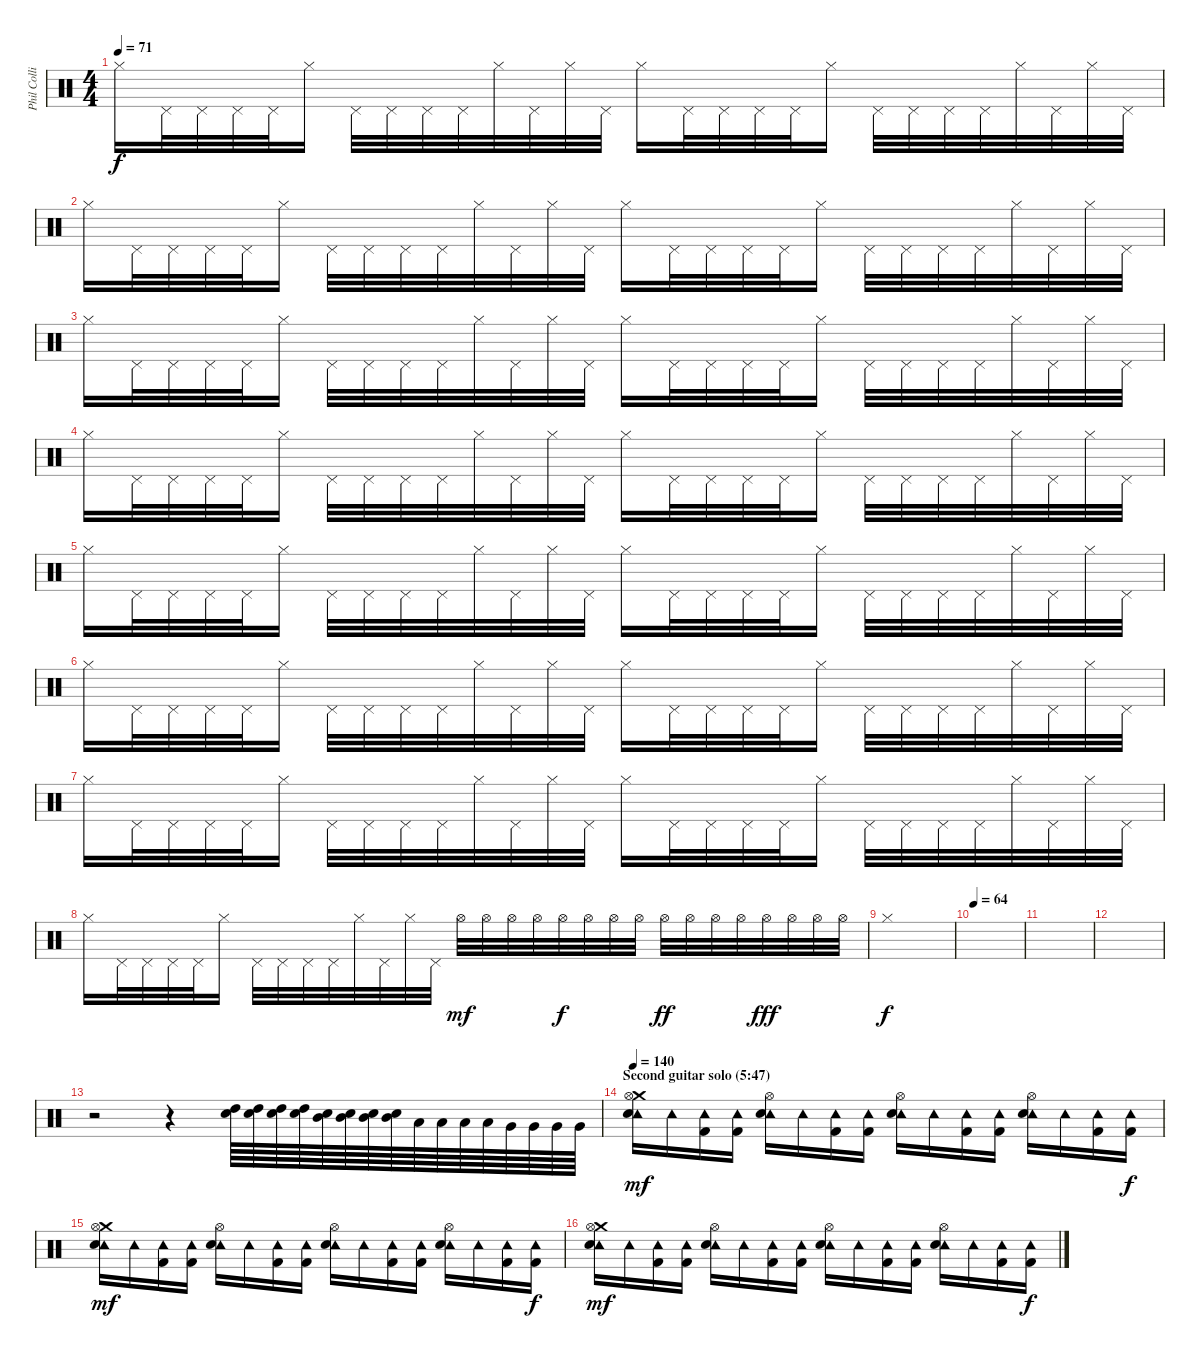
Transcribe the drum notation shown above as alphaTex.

\track ("Phil Collins (drums)" "Phil Colli") {instrument percussion}
\staff {score}
\articulation defaults
\ts (4 4)
\tempo 71
\clef neutral
\ks c "Hi-Hat (closed)".16{dy f} "Pedal Hi-Hat (hit)".32 "Pedal Hi-Hat (hit)".32 "Pedal Hi-Hat (hit)".32 "Pedal Hi-Hat (hit)".32 "Hi-Hat (closed)".16 "Pedal Hi-Hat (hit)".32 "Pedal Hi-Hat (hit)".32 "Pedal Hi-Hat (hit)".32 "Pedal Hi-Hat (hit)".32 "Hi-Hat (closed)".32 "Pedal Hi-Hat (hit)".32 "Hi-Hat (closed)".32 "Pedal Hi-Hat (hit)".32 "Hi-Hat (closed)".16 "Pedal Hi-Hat (hit)".32 "Pedal Hi-Hat (hit)".32 "Pedal Hi-Hat (hit)".32 "Pedal Hi-Hat (hit)".32 "Hi-Hat (closed)".16 "Pedal Hi-Hat (hit)".32 "Pedal Hi-Hat (hit)".32 "Pedal Hi-Hat (hit)".32 "Pedal Hi-Hat (hit)".32 "Hi-Hat (closed)".32 "Pedal Hi-Hat (hit)".32 "Hi-Hat (closed)".32 "Pedal Hi-Hat (hit)".32
|
"Hi-Hat (closed)".16 "Pedal Hi-Hat (hit)".32 "Pedal Hi-Hat (hit)".32 "Pedal Hi-Hat (hit)".32 "Pedal Hi-Hat (hit)".32 "Hi-Hat (closed)".16 "Pedal Hi-Hat (hit)".32 "Pedal Hi-Hat (hit)".32 "Pedal Hi-Hat (hit)".32 "Pedal Hi-Hat (hit)".32 "Hi-Hat (closed)".32 "Pedal Hi-Hat (hit)".32 "Hi-Hat (closed)".32 "Pedal Hi-Hat (hit)".32 "Hi-Hat (closed)".16 "Pedal Hi-Hat (hit)".32 "Pedal Hi-Hat (hit)".32 "Pedal Hi-Hat (hit)".32 "Pedal Hi-Hat (hit)".32 "Hi-Hat (closed)".16 "Pedal Hi-Hat (hit)".32 "Pedal Hi-Hat (hit)".32 "Pedal Hi-Hat (hit)".32 "Pedal Hi-Hat (hit)".32 "Hi-Hat (closed)".32 "Pedal Hi-Hat (hit)".32 "Hi-Hat (closed)".32 "Pedal Hi-Hat (hit)".32 |
"Hi-Hat (closed)".16 "Pedal Hi-Hat (hit)".32 "Pedal Hi-Hat (hit)".32 "Pedal Hi-Hat (hit)".32 "Pedal Hi-Hat (hit)".32 "Hi-Hat (closed)".16 "Pedal Hi-Hat (hit)".32 "Pedal Hi-Hat (hit)".32 "Pedal Hi-Hat (hit)".32 "Pedal Hi-Hat (hit)".32 "Hi-Hat (closed)".32 "Pedal Hi-Hat (hit)".32 "Hi-Hat (closed)".32 "Pedal Hi-Hat (hit)".32 "Hi-Hat (closed)".16 "Pedal Hi-Hat (hit)".32 "Pedal Hi-Hat (hit)".32 "Pedal Hi-Hat (hit)".32 "Pedal Hi-Hat (hit)".32 "Hi-Hat (closed)".16 "Pedal Hi-Hat (hit)".32 "Pedal Hi-Hat (hit)".32 "Pedal Hi-Hat (hit)".32 "Pedal Hi-Hat (hit)".32 "Hi-Hat (closed)".32 "Pedal Hi-Hat (hit)".32 "Hi-Hat (closed)".32 "Pedal Hi-Hat (hit)".32 |
"Hi-Hat (closed)".16 "Pedal Hi-Hat (hit)".32 "Pedal Hi-Hat (hit)".32 "Pedal Hi-Hat (hit)".32 "Pedal Hi-Hat (hit)".32 "Hi-Hat (closed)".16 "Pedal Hi-Hat (hit)".32 "Pedal Hi-Hat (hit)".32 "Pedal Hi-Hat (hit)".32 "Pedal Hi-Hat (hit)".32 "Hi-Hat (closed)".32 "Pedal Hi-Hat (hit)".32 "Hi-Hat (closed)".32 "Pedal Hi-Hat (hit)".32 "Hi-Hat (closed)".16 "Pedal Hi-Hat (hit)".32 "Pedal Hi-Hat (hit)".32 "Pedal Hi-Hat (hit)".32 "Pedal Hi-Hat (hit)".32 "Hi-Hat (closed)".16 "Pedal Hi-Hat (hit)".32 "Pedal Hi-Hat (hit)".32 "Pedal Hi-Hat (hit)".32 "Pedal Hi-Hat (hit)".32 "Hi-Hat (closed)".32 "Pedal Hi-Hat (hit)".32 "Hi-Hat (closed)".32 "Pedal Hi-Hat (hit)".32 |
"Hi-Hat (closed)".16 "Pedal Hi-Hat (hit)".32 "Pedal Hi-Hat (hit)".32 "Pedal Hi-Hat (hit)".32 "Pedal Hi-Hat (hit)".32 "Hi-Hat (closed)".16 "Pedal Hi-Hat (hit)".32 "Pedal Hi-Hat (hit)".32 "Pedal Hi-Hat (hit)".32 "Pedal Hi-Hat (hit)".32 "Hi-Hat (closed)".32 "Pedal Hi-Hat (hit)".32 "Hi-Hat (closed)".32 "Pedal Hi-Hat (hit)".32 "Hi-Hat (closed)".16 "Pedal Hi-Hat (hit)".32 "Pedal Hi-Hat (hit)".32 "Pedal Hi-Hat (hit)".32 "Pedal Hi-Hat (hit)".32 "Hi-Hat (closed)".16 "Pedal Hi-Hat (hit)".32 "Pedal Hi-Hat (hit)".32 "Pedal Hi-Hat (hit)".32 "Pedal Hi-Hat (hit)".32 "Hi-Hat (closed)".32 "Pedal Hi-Hat (hit)".32 "Hi-Hat (closed)".32 "Pedal Hi-Hat (hit)".32 |
"Hi-Hat (closed)".16 "Pedal Hi-Hat (hit)".32 "Pedal Hi-Hat (hit)".32 "Pedal Hi-Hat (hit)".32 "Pedal Hi-Hat (hit)".32 "Hi-Hat (closed)".16 "Pedal Hi-Hat (hit)".32 "Pedal Hi-Hat (hit)".32 "Pedal Hi-Hat (hit)".32 "Pedal Hi-Hat (hit)".32 "Hi-Hat (closed)".32 "Pedal Hi-Hat (hit)".32 "Hi-Hat (closed)".32 "Pedal Hi-Hat (hit)".32 "Hi-Hat (closed)".16 "Pedal Hi-Hat (hit)".32 "Pedal Hi-Hat (hit)".32 "Pedal Hi-Hat (hit)".32 "Pedal Hi-Hat (hit)".32 "Hi-Hat (closed)".16 "Pedal Hi-Hat (hit)".32 "Pedal Hi-Hat (hit)".32 "Pedal Hi-Hat (hit)".32 "Pedal Hi-Hat (hit)".32 "Hi-Hat (closed)".32 "Pedal Hi-Hat (hit)".32 "Hi-Hat (closed)".32 "Pedal Hi-Hat (hit)".32 |
"Hi-Hat (closed)".16 "Pedal Hi-Hat (hit)".32 "Pedal Hi-Hat (hit)".32 "Pedal Hi-Hat (hit)".32 "Pedal Hi-Hat (hit)".32 "Hi-Hat (closed)".16 "Pedal Hi-Hat (hit)".32 "Pedal Hi-Hat (hit)".32 "Pedal Hi-Hat (hit)".32 "Pedal Hi-Hat (hit)".32 "Hi-Hat (closed)".32 "Pedal Hi-Hat (hit)".32 "Hi-Hat (closed)".32 "Pedal Hi-Hat (hit)".32 "Hi-Hat (closed)".16 "Pedal Hi-Hat (hit)".32 "Pedal Hi-Hat (hit)".32 "Pedal Hi-Hat (hit)".32 "Pedal Hi-Hat (hit)".32 "Hi-Hat (closed)".16 "Pedal Hi-Hat (hit)".32 "Pedal Hi-Hat (hit)".32 "Pedal Hi-Hat (hit)".32 "Pedal Hi-Hat (hit)".32 "Hi-Hat (closed)".32 "Pedal Hi-Hat (hit)".32 "Hi-Hat (closed)".32 "Pedal Hi-Hat (hit)".32 |
"Hi-Hat (closed)".16 "Pedal Hi-Hat (hit)".32 "Pedal Hi-Hat (hit)".32 "Pedal Hi-Hat (hit)".32 "Pedal Hi-Hat (hit)".32 "Hi-Hat (closed)".16 "Pedal Hi-Hat (hit)".32 "Pedal Hi-Hat (hit)".32 "Pedal Hi-Hat (hit)".32 "Pedal Hi-Hat (hit)".32 "Hi-Hat (closed)".32 "Pedal Hi-Hat (hit)".32 "Hi-Hat (closed)".32 "Pedal Hi-Hat (hit)".32 "Hi-Hat (open)".32{dy mf} "Hi-Hat (open)".32 "Hi-Hat (open)".32 "Hi-Hat (open)".32 "Hi-Hat (open)".32{dy f} "Hi-Hat (open)".32 "Hi-Hat (open)".32 "Hi-Hat (open)".32 "Hi-Hat (open)".32{dy ff} "Hi-Hat (open)".32 "Hi-Hat (open)".32 "Hi-Hat (open)".32 "Hi-Hat (open)".32{dy fff} "Hi-Hat (open)".32 "Hi-Hat (open)".32 "Hi-Hat (open)".32 |
"Hi-Hat (closed)".1{dy f} |
\tempo 64
|
|
|
r.2{volume 13} r.4 ("High Tom (hit)" "Electric Snare (hit)").64 ("High Tom (hit)" "Electric Snare (hit)").64 ("High Tom (hit)" "Electric Snare (hit)").64 ("High Tom (hit)" "Electric Snare (hit)").64 ("Mid Tom (hit)" "Electric Snare (hit)").64 ("Mid Tom (hit)" "Electric Snare (hit)").64 ("Mid Tom (hit)" "Electric Snare (hit)").64 ("Mid Tom (hit)" "Electric Snare (hit)").64 "Low Tom (hit)".64 "Low Tom (hit)".64 "Low Tom (hit)".64 "Low Tom (hit)".64 "Very Low Tom (hit)".64 "Very Low Tom (hit)".64 "Very Low Tom (hit)".64 "Very Low Tom (hit)".64 |
\section ("" "Second guitar solo (5:47)")
\tempo 140
("Tambourine (hit)" "Crash medium (hit)" "Hi-Hat (open)" "Electric Snare (hit)").16{dy mf} "Tambourine (hit)".16 ("Tambourine (hit)" "Kick (hit) 2").16 ("Tambourine (hit)" "Kick (hit) 2").16 ("Tambourine (hit)" "Hi-Hat (open)" "Electric Snare (hit)").16 "Tambourine (hit)".16 ("Tambourine (hit)" "Kick (hit) 2").16 ("Tambourine (hit)" "Kick (hit) 2").16 ("Tambourine (hit)" "Hi-Hat (open)" "Electric Snare (hit)").16 "Tambourine (hit)".16 ("Tambourine (hit)" "Kick (hit) 2").16 ("Tambourine (hit)" "Kick (hit) 2").16 ("Tambourine (hit)" "Hi-Hat (open)" "Electric Snare (hit)").16 "Tambourine (hit)".16 ("Tambourine (hit)" "Kick (hit) 2").16 ("Tambourine (hit)" "Kick (hit) 2").16{dy f} |
("Tambourine (hit)" "Crash medium (hit)" "Hi-Hat (open)" "Electric Snare (hit)").16{dy mf} "Tambourine (hit)".16 ("Tambourine (hit)" "Kick (hit) 2").16 ("Tambourine (hit)" "Kick (hit) 2").16 ("Tambourine (hit)" "Hi-Hat (open)" "Electric Snare (hit)").16 "Tambourine (hit)".16 ("Tambourine (hit)" "Kick (hit) 2").16 ("Tambourine (hit)" "Kick (hit) 2").16 ("Tambourine (hit)" "Hi-Hat (open)" "Electric Snare (hit)").16 "Tambourine (hit)".16 ("Tambourine (hit)" "Kick (hit) 2").16 ("Tambourine (hit)" "Kick (hit) 2").16 ("Tambourine (hit)" "Hi-Hat (open)" "Electric Snare (hit)").16 "Tambourine (hit)".16 ("Tambourine (hit)" "Kick (hit) 2").16 ("Tambourine (hit)" "Kick (hit) 2").16{dy f} |
("Tambourine (hit)" "Crash medium (hit)" "Hi-Hat (open)" "Electric Snare (hit)").16{dy mf} "Tambourine (hit)".16 ("Tambourine (hit)" "Kick (hit) 2").16 ("Tambourine (hit)" "Kick (hit) 2").16 ("Tambourine (hit)" "Hi-Hat (open)" "Electric Snare (hit)").16 "Tambourine (hit)".16 ("Tambourine (hit)" "Kick (hit) 2").16 ("Tambourine (hit)" "Kick (hit) 2").16 ("Tambourine (hit)" "Hi-Hat (open)" "Electric Snare (hit)").16 "Tambourine (hit)".16 ("Tambourine (hit)" "Kick (hit) 2").16 ("Tambourine (hit)" "Kick (hit) 2").16 ("Tambourine (hit)" "Hi-Hat (open)" "Electric Snare (hit)").16 "Tambourine (hit)".16 ("Tambourine (hit)" "Kick (hit) 2").16 ("Tambourine (hit)" "Kick (hit) 2").16{dy f}
